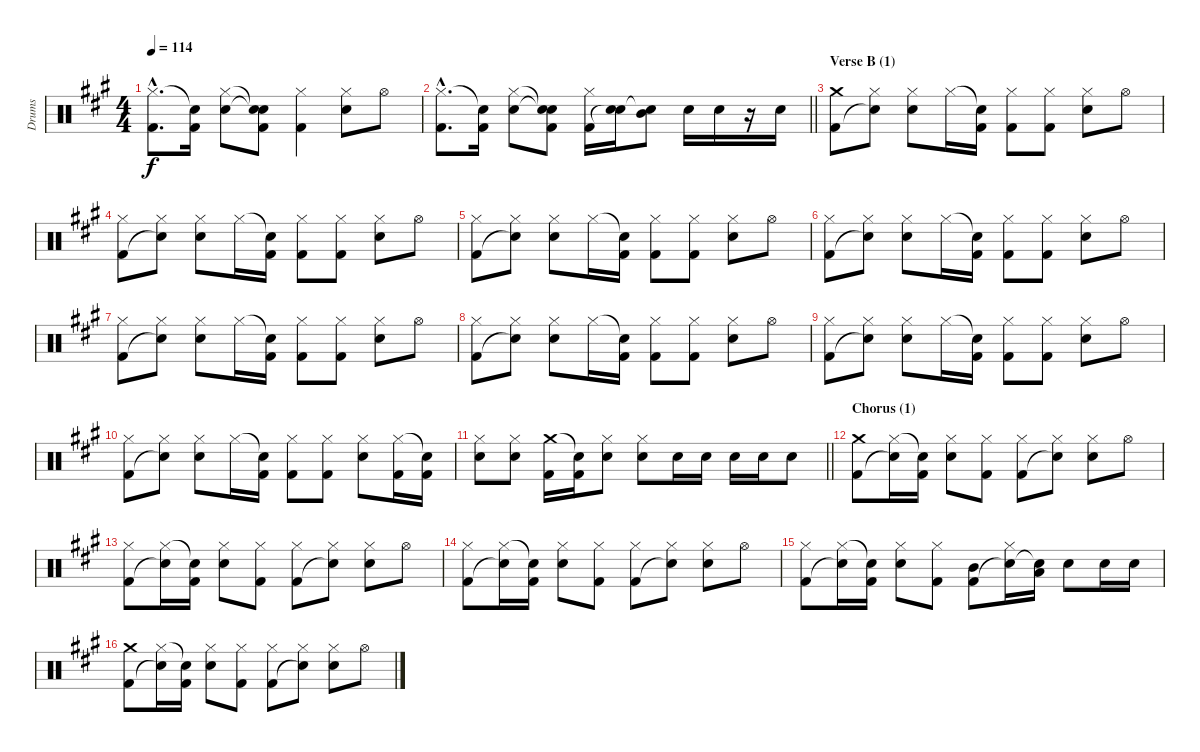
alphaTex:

\track ("Drums" "Drums") {instrument percussion}
\staff {score}
\articulation defaults
\ts (4 4)
\tempo 114
\clef neutral
\ks a
("Hi-Hat (closed)"{hac} "Kick (hit) 2"{hac}).8{d dy f} ("Snare (hit)"{t} "Kick (hit) 2").16 ("Hi-Hat (closed)" "Electric Snare (hit)").8 ("Snare (hit)"{t} "Snare (hit)"{t} "Kick (hit) 2").8 ("Hi-Hat (closed)" "Kick (hit) 2").4 ("Hi-Hat (closed)" "Electric Snare (hit)").8 "Hi-Hat (open)".8 |
\barLineRight lightlight
("Hi-Hat (closed)"{hac} "Kick (hit) 2"{hac}).8{d} ("Snare (hit)"{t} "Kick (hit) 2").16 ("Hi-Hat (closed)" "Electric Snare (hit)").8 ("Snare (hit)"{t} "Snare (hit)"{t} "Kick (hit) 2").8 ("Hi-Hat (closed)" "Kick (hit) 2").16 ("Electric Snare (hit)" "Snare (hit)"{t}).16 ("Mid Tom (hit)" "Snare (hit)"{t}).8 "Electric Snare (hit)".16 "Electric Snare (hit)".16 r.16 "Electric Snare (hit)".16 |
\section ("" "Verse B (1)")
("Crash medium (hit)" "Kick (hit) 2").8 ("Hi-Hat (closed)" "Snare (hit)"{t}).8 ("Hi-Hat (closed)" "Electric Snare (hit)").8 "Hi-Hat (closed)".16 ("Snare (hit)"{t} "Kick (hit) 2").16 ("Hi-Hat (closed)" "Kick (hit) 2").8 ("Hi-Hat (closed)" "Kick (hit) 2").8 ("Hi-Hat (closed)" "Electric Snare (hit)").8 "Hi-Hat (open)".8 |
("Hi-Hat (closed)" "Kick (hit) 2").8 ("Hi-Hat (closed)" "Snare (hit)"{t}).8 ("Hi-Hat (closed)" "Electric Snare (hit)").8 "Hi-Hat (closed)".16 ("Snare (hit)"{t} "Kick (hit) 2").16 ("Hi-Hat (closed)" "Kick (hit) 2").8 ("Hi-Hat (closed)" "Kick (hit) 2").8 ("Hi-Hat (closed)" "Electric Snare (hit)").8 "Hi-Hat (open)".8 |
("Hi-Hat (closed)" "Kick (hit) 2").8 ("Hi-Hat (closed)" "Snare (hit)"{t}).8 ("Hi-Hat (closed)" "Electric Snare (hit)").8 "Hi-Hat (closed)".16 ("Snare (hit)"{t} "Kick (hit) 2").16 ("Hi-Hat (closed)" "Kick (hit) 2").8 ("Hi-Hat (closed)" "Kick (hit) 2").8 ("Hi-Hat (closed)" "Electric Snare (hit)").8 "Hi-Hat (open)".8 |
("Hi-Hat (closed)" "Kick (hit) 2").8 ("Hi-Hat (closed)" "Snare (hit)"{t}).8 ("Hi-Hat (closed)" "Electric Snare (hit)").8 "Hi-Hat (closed)".16 ("Snare (hit)"{t} "Kick (hit) 2").16 ("Hi-Hat (closed)" "Kick (hit) 2").8 ("Hi-Hat (closed)" "Kick (hit) 2").8 ("Hi-Hat (closed)" "Electric Snare (hit)").8 "Hi-Hat (open)".8 |
("Hi-Hat (closed)" "Kick (hit) 2").8 ("Hi-Hat (closed)" "Snare (hit)"{t}).8 ("Hi-Hat (closed)" "Electric Snare (hit)").8 "Hi-Hat (closed)".16 ("Snare (hit)"{t} "Kick (hit) 2").16 ("Hi-Hat (closed)" "Kick (hit) 2").8 ("Hi-Hat (closed)" "Kick (hit) 2").8 ("Hi-Hat (closed)" "Electric Snare (hit)").8 "Hi-Hat (open)".8 |
("Hi-Hat (closed)" "Kick (hit) 2").8 ("Hi-Hat (closed)" "Snare (hit)"{t}).8 ("Hi-Hat (closed)" "Electric Snare (hit)").8 "Hi-Hat (closed)".16 ("Snare (hit)"{t} "Kick (hit) 2").16 ("Hi-Hat (closed)" "Kick (hit) 2").8 ("Hi-Hat (closed)" "Kick (hit) 2").8 ("Hi-Hat (closed)" "Electric Snare (hit)").8 "Hi-Hat (open)".8 |
("Hi-Hat (closed)" "Kick (hit) 2").8 ("Hi-Hat (closed)" "Snare (hit)"{t}).8 ("Hi-Hat (closed)" "Electric Snare (hit)").8 "Hi-Hat (closed)".16 ("Snare (hit)"{t} "Kick (hit) 2").16 ("Hi-Hat (closed)" "Kick (hit) 2").8 ("Hi-Hat (closed)" "Kick (hit) 2").8 ("Hi-Hat (closed)" "Electric Snare (hit)").8 "Hi-Hat (open)".8 |
("Hi-Hat (closed)" "Kick (hit) 2").8 ("Hi-Hat (closed)" "Snare (hit)"{t}).8 ("Hi-Hat (closed)" "Electric Snare (hit)").8 "Hi-Hat (closed)".16 ("Snare (hit)"{t} "Kick (hit) 2").16 ("Hi-Hat (closed)" "Kick (hit) 2").8 ("Hi-Hat (closed)" "Kick (hit) 2").8 ("Hi-Hat (closed)" "Electric Snare (hit)").8 ("Hi-Hat (closed)" "Kick (hit) 2").16 ("Snare (hit)"{t} "Kick (hit) 2").16 |
\barLineRight lightlight
("Hi-Hat (closed)" "Electric Snare (hit)").8 ("Hi-Hat (closed)" "Electric Snare (hit)").8 ("Crash medium (hit)" "Kick (hit) 2").16 ("Snare (hit)"{t} "Kick (hit) 2").16 ("Hi-Hat (closed)" "Electric Snare (hit)").8 ("Hi-Hat (closed)" "Electric Snare (hit)").8 "Electric Snare (hit)".16 "Electric Snare (hit)".16 "Electric Snare (hit)".16 "Electric Snare (hit)".16 "Electric Snare (hit)".8 |
\section ("" "Chorus (1)")
("Crash medium (hit)" "Kick (hit) 2").8 ("Hi-Hat (closed)" "Snare (hit)"{t}).16 ("Snare (hit)"{t} "Kick (hit) 2").16 ("Hi-Hat (closed)" "Electric Snare (hit)").8 ("Hi-Hat (closed)" "Kick (hit) 2").8 ("Hi-Hat (closed)" "Kick (hit) 2").8 ("Hi-Hat (closed)" "Snare (hit)"{t}).8 ("Hi-Hat (closed)" "Electric Snare (hit)").8 "Hi-Hat (open)".8 |
("Hi-Hat (closed)" "Kick (hit) 2").8 ("Hi-Hat (closed)" "Snare (hit)"{t}).16 ("Snare (hit)"{t} "Kick (hit) 2").16 ("Hi-Hat (closed)" "Electric Snare (hit)").8 ("Hi-Hat (closed)" "Kick (hit) 2").8 ("Hi-Hat (closed)" "Kick (hit) 2").8 ("Hi-Hat (closed)" "Snare (hit)"{t}).8 ("Hi-Hat (closed)" "Electric Snare (hit)").8 "Hi-Hat (open)".8 |
("Hi-Hat (closed)" "Kick (hit) 2").8 ("Hi-Hat (closed)" "Snare (hit)"{t}).16 ("Snare (hit)"{t} "Kick (hit) 2").16 ("Hi-Hat (closed)" "Electric Snare (hit)").8 ("Hi-Hat (closed)" "Kick (hit) 2").8 ("Hi-Hat (closed)" "Kick (hit) 2").8 ("Hi-Hat (closed)" "Snare (hit)"{t}).8 ("Hi-Hat (closed)" "Electric Snare (hit)").8 "Hi-Hat (open)".8 |
("Hi-Hat (closed)" "Kick (hit) 2").8 ("Hi-Hat (closed)" "Snare (hit)"{t}).16 ("Snare (hit)"{t} "Kick (hit) 2").16 ("Hi-Hat (closed)" "Electric Snare (hit)").8 ("Hi-Hat (closed)" "Kick (hit) 2").8 ("Mid Tom (hit)" "Kick (hit) 2").8 ("Hi-Hat (closed)" "Snare (hit)"{t}).16 ("Low Tom (hit)" "Snare (hit)"{t}).16 "Electric Snare (hit)".8 "Electric Snare (hit)".16 "Electric Snare (hit)".16 |
("Crash medium (hit)" "Kick (hit) 2").8 ("Hi-Hat (closed)" "Snare (hit)"{t}).16 ("Snare (hit)"{t} "Kick (hit) 2").16 ("Hi-Hat (closed)" "Electric Snare (hit)").8 ("Hi-Hat (closed)" "Kick (hit) 2").8 ("Hi-Hat (closed)" "Kick (hit) 2").8 ("Hi-Hat (closed)" "Snare (hit)"{t}).8 ("Hi-Hat (closed)" "Electric Snare (hit)").8 "Hi-Hat (open)".8
